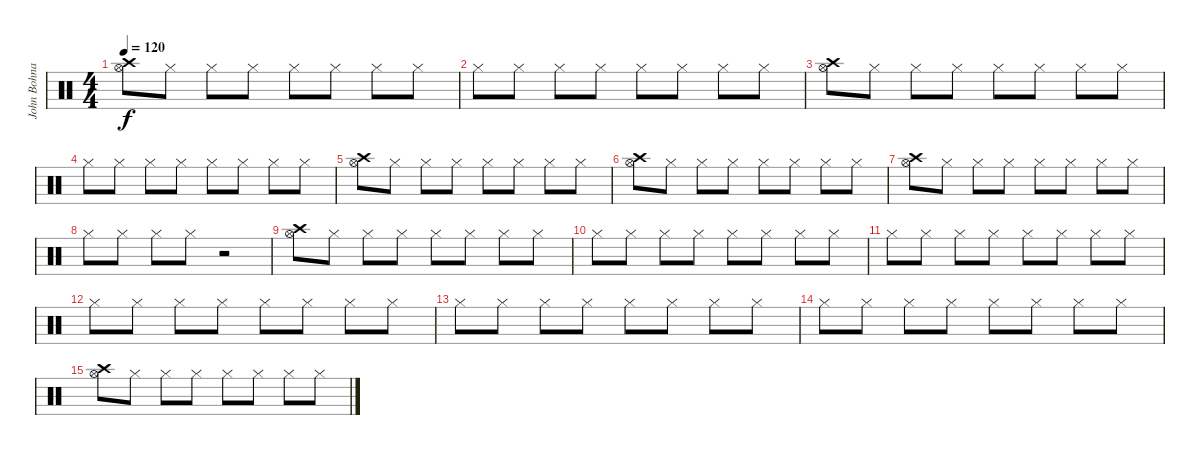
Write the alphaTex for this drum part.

\track ("John Bohnam - Charley Cym." "John Bohna") {instrument percussion}
\staff {score}
\articulation defaults
\ts (4 4)
\tempo 120
\clef neutral
\ks c
("Hi-Hat (open)" "Crash high (hit)").8{dy f} "Hi-Hat (closed)".8 "Hi-Hat (closed)".8 "Hi-Hat (closed)".8 "Hi-Hat (closed)".8 "Hi-Hat (closed)".8 "Hi-Hat (closed)".8 "Hi-Hat (closed)".8 |
"Hi-Hat (closed)".8 "Hi-Hat (closed)".8 "Hi-Hat (closed)".8 "Hi-Hat (closed)".8 "Hi-Hat (closed)".8 "Hi-Hat (closed)".8 "Hi-Hat (closed)".8 "Hi-Hat (closed)".8 |
("Hi-Hat (open)" "Crash high (hit)").8 "Hi-Hat (closed)".8 "Hi-Hat (closed)".8 "Hi-Hat (closed)".8 "Hi-Hat (closed)".8 "Hi-Hat (closed)".8 "Hi-Hat (closed)".8 "Hi-Hat (closed)".8 |
"Hi-Hat (closed)".8 "Hi-Hat (closed)".8 "Hi-Hat (closed)".8 "Hi-Hat (closed)".8 "Hi-Hat (closed)".8 "Hi-Hat (closed)".8 "Hi-Hat (closed)".8 "Hi-Hat (closed)".8 |
("Hi-Hat (open)" "Crash high (hit)").8 "Hi-Hat (closed)".8 "Hi-Hat (closed)".8 "Hi-Hat (closed)".8 "Hi-Hat (closed)".8 "Hi-Hat (closed)".8 "Hi-Hat (closed)".8 "Hi-Hat (closed)".8 |
("Hi-Hat (open)" "Crash high (hit)").8 "Hi-Hat (closed)".8 "Hi-Hat (closed)".8 "Hi-Hat (closed)".8 "Hi-Hat (closed)".8 "Hi-Hat (closed)".8 "Hi-Hat (closed)".8 "Hi-Hat (closed)".8 |
("Hi-Hat (open)" "Crash high (hit)").8 "Hi-Hat (closed)".8 "Hi-Hat (closed)".8 "Hi-Hat (closed)".8 "Hi-Hat (closed)".8 "Hi-Hat (closed)".8 "Hi-Hat (closed)".8 "Hi-Hat (closed)".8 |
"Hi-Hat (closed)".8 "Hi-Hat (closed)".8 "Hi-Hat (closed)".8 "Hi-Hat (closed)".8 r.2 |
("Hi-Hat (open)" "Crash high (hit)").8 "Hi-Hat (closed)".8 "Hi-Hat (closed)".8 "Hi-Hat (closed)".8 "Hi-Hat (closed)".8 "Hi-Hat (closed)".8 "Hi-Hat (closed)".8 "Hi-Hat (closed)".8 |
"Hi-Hat (closed)".8 "Hi-Hat (closed)".8 "Hi-Hat (closed)".8 "Hi-Hat (closed)".8 "Hi-Hat (closed)".8 "Hi-Hat (closed)".8 "Hi-Hat (closed)".8 "Hi-Hat (closed)".8 |
"Hi-Hat (closed)".8 "Hi-Hat (closed)".8 "Hi-Hat (closed)".8 "Hi-Hat (closed)".8 "Hi-Hat (closed)".8 "Hi-Hat (closed)".8 "Hi-Hat (closed)".8 "Hi-Hat (closed)".8 |
"Hi-Hat (closed)".8 "Hi-Hat (closed)".8 "Hi-Hat (closed)".8 "Hi-Hat (closed)".8 "Hi-Hat (closed)".8 "Hi-Hat (closed)".8 "Hi-Hat (closed)".8 "Hi-Hat (closed)".8 |
"Hi-Hat (closed)".8 "Hi-Hat (closed)".8 "Hi-Hat (closed)".8 "Hi-Hat (closed)".8 "Hi-Hat (closed)".8 "Hi-Hat (closed)".8 "Hi-Hat (closed)".8 "Hi-Hat (closed)".8 |
"Hi-Hat (closed)".8 "Hi-Hat (closed)".8 "Hi-Hat (closed)".8 "Hi-Hat (closed)".8 "Hi-Hat (closed)".8 "Hi-Hat (closed)".8 "Hi-Hat (closed)".8 "Hi-Hat (closed)".8 |
("Hi-Hat (open)" "Crash high (hit)").8 "Hi-Hat (closed)".8 "Hi-Hat (closed)".8 "Hi-Hat (closed)".8 "Hi-Hat (closed)".8 "Hi-Hat (closed)".8 "Hi-Hat (closed)".8 "Hi-Hat (closed)".8
